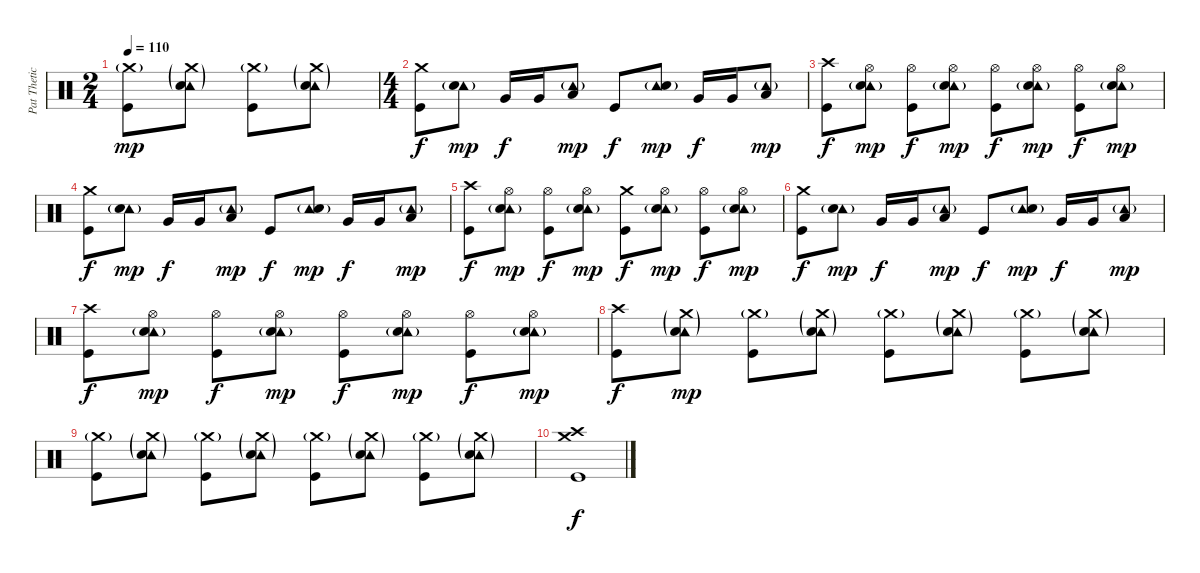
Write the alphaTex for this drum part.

\track ("Pat Thetic Drums" "Pat Thetic") {instrument percussion}
\staff {score}
\articulation defaults
\ts (2 4)
\tempo 110
\clef neutral
\ks c
("Crash medium (hit)"{g} "Kick (hit)").8{dy mp} ("Tambourine (hit)"{g} "Crash medium (hit)"{g} "Electric Snare (hit)").8 ("Crash medium (hit)"{g} "Kick (hit)").8 ("Tambourine (hit)"{g} "Crash medium (hit)"{g} "Electric Snare (hit)").8 |
\ts (4 4)
("Crash medium (hit)" "Kick (hit)").8{dy f} ("Tambourine (hit)"{g} "Electric Snare (hit)").8{dy mp} "Very Low Tom (hit)".16{dy f} "Very Low Tom (hit)".16 ("Tambourine (hit)"{g} "Low Tom (hit)").8{dy mp} "Kick (hit)".8{dy f} ("Tambourine (hit)"{g} "Electric Snare (hit)").8{dy mp} "Very Low Tom (hit)".16{dy f} "Very Low Tom (hit)".16 ("Tambourine (hit)"{g} "Low Tom (hit)").8{dy mp} |
("Crash high (hit)" "Kick (hit)").8{dy f} ("Tambourine (hit)"{g} "Hi-Hat (open)" "Electric Snare (hit)").8{dy mp} ("Hi-Hat (open)" "Kick (hit)").8{dy f} ("Tambourine (hit)"{g} "Hi-Hat (open)" "Electric Snare (hit)").8{dy mp} ("Hi-Hat (open)" "Kick (hit)").8{dy f} ("Tambourine (hit)"{g} "Hi-Hat (open)" "Electric Snare (hit)").8{dy mp} ("Hi-Hat (open)" "Kick (hit)").8{dy f} ("Tambourine (hit)"{g} "Hi-Hat (open)" "Electric Snare (hit)").8{dy mp} |
("Crash medium (hit)" "Kick (hit)").8{dy f} ("Tambourine (hit)"{g} "Electric Snare (hit)").8{dy mp} "Very Low Tom (hit)".16{dy f} "Very Low Tom (hit)".16 ("Tambourine (hit)"{g} "Low Tom (hit)").8{dy mp} "Kick (hit)".8{dy f} ("Tambourine (hit)"{g} "Electric Snare (hit)").8{dy mp} "Very Low Tom (hit)".16{dy f} "Very Low Tom (hit)".16 ("Tambourine (hit)"{g} "Low Tom (hit)").8{dy mp} |
("Crash high (hit)" "Kick (hit)").8{dy f} ("Tambourine (hit)"{g} "Hi-Hat (open)" "Electric Snare (hit)").8{dy mp} ("Hi-Hat (open)" "Kick (hit)").8{dy f} ("Tambourine (hit)"{g} "Hi-Hat (open)" "Electric Snare (hit)").8{dy mp} ("Crash medium (hit)" "Kick (hit)").8{dy f} ("Tambourine (hit)"{g} "Hi-Hat (open)" "Electric Snare (hit)").8{dy mp} ("Hi-Hat (open)" "Kick (hit)").8{dy f} ("Tambourine (hit)"{g} "Hi-Hat (open)" "Electric Snare (hit)").8{dy mp} |
("Crash medium (hit)" "Kick (hit)").8{dy f} ("Tambourine (hit)"{g} "Electric Snare (hit)").8{dy mp} "Very Low Tom (hit)".16{dy f} "Very Low Tom (hit)".16 ("Tambourine (hit)"{g} "Low Tom (hit)").8{dy mp} "Kick (hit)".8{dy f} ("Tambourine (hit)"{g} "Electric Snare (hit)").8{dy mp} "Very Low Tom (hit)".16{dy f} "Very Low Tom (hit)".16 ("Tambourine (hit)"{g} "Low Tom (hit)").8{dy mp} |
("Crash high (hit)" "Kick (hit)").8{dy f} ("Tambourine (hit)"{g} "Hi-Hat (open)" "Electric Snare (hit)").8{dy mp} ("Hi-Hat (open)" "Kick (hit)").8{dy f} ("Tambourine (hit)"{g} "Hi-Hat (open)" "Electric Snare (hit)").8{dy mp} ("Hi-Hat (open)" "Kick (hit)").8{dy f} ("Tambourine (hit)"{g} "Hi-Hat (open)" "Electric Snare (hit)").8{dy mp} ("Hi-Hat (open)" "Kick (hit)").8{dy f} ("Tambourine (hit)"{g} "Hi-Hat (open)" "Electric Snare (hit)").8{dy mp} |
("Crash high (hit)" "Kick (hit)").8{dy f} ("Tambourine (hit)"{g} "Crash medium (hit)"{g} "Electric Snare (hit)").8{dy mp} ("Crash medium (hit)"{g} "Kick (hit)").8 ("Tambourine (hit)"{g} "Crash medium (hit)"{g} "Electric Snare (hit)").8 ("Crash medium (hit)"{g} "Kick (hit)").8 ("Tambourine (hit)"{g} "Crash medium (hit)"{g} "Electric Snare (hit)").8 ("Crash medium (hit)"{g} "Kick (hit)").8 ("Tambourine (hit)"{g} "Crash medium (hit)"{g} "Electric Snare (hit)").8 |
("Crash medium (hit)"{g} "Kick (hit)").8 ("Tambourine (hit)"{g} "Crash medium (hit)"{g} "Electric Snare (hit)").8 ("Crash medium (hit)"{g} "Kick (hit)").8 ("Tambourine (hit)"{g} "Crash medium (hit)"{g} "Electric Snare (hit)").8 ("Crash medium (hit)"{g} "Kick (hit)").8 ("Tambourine (hit)"{g} "Crash medium (hit)"{g} "Electric Snare (hit)").8 ("Crash medium (hit)"{g} "Kick (hit)").8 ("Tambourine (hit)"{g} "Crash medium (hit)"{g} "Electric Snare (hit)").8 |
("Crash high (hit)" "Crash medium (hit)" "Kick (hit)").1{dy f}
